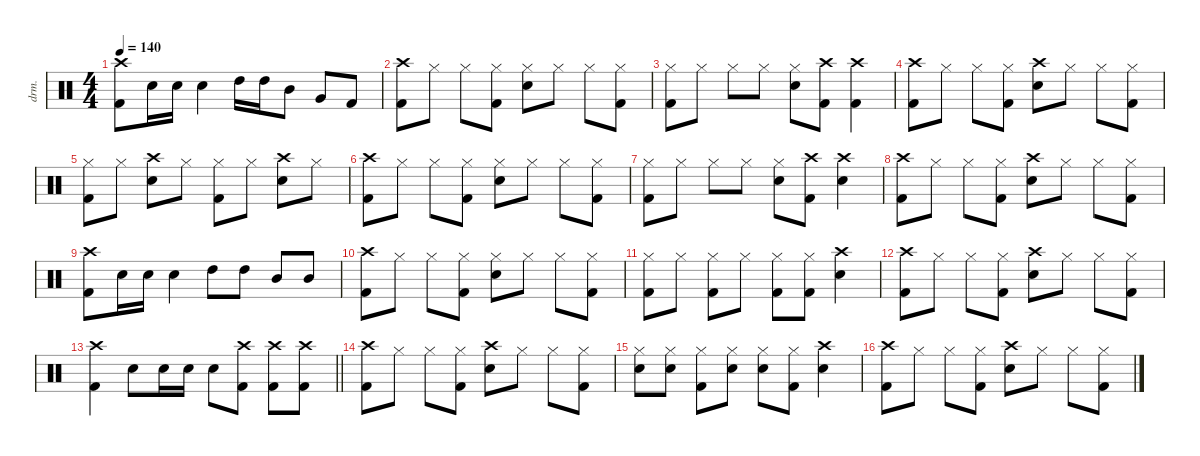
\defaultSystemsLayout 4
\hideDynamics
\bracketExtendMode nobrackets
\otherSystemsTrackNameOrientation horizontal
\track ("Drums" "drm.") {defaultSystemsLayout 4 instrument percussion}
\staff {score}
\articulation defaults
\ts (4 4)
\tempo 140
\clef neutral
\ks c
("Crash high (hit)" "Kick (hit) 2").8{dy f beam Down} "Snare (hit) 2".16{beam Down} "Snare (hit) 2".16{beam Down} "Snare (hit) 2".4{beam Down} "High Tom (hit)".16{beam Down} "High Tom (hit)".16{beam Down} "Mid Tom (hit)".8{beam Down} "Very Low Tom (hit)".8{beam Up} "Kick (hit) 2".8{beam Up} |
("Crash high (hit)" "Kick (hit) 2").8{beam Down} "Hi-Hat (closed)".8{beam Down} "Hi-Hat (closed)".8{beam Down} ("Hi-Hat (closed)" "Kick (hit) 2").8{beam Down} ("Hi-Hat (closed)" "Snare (hit) 2").8{beam Down} "Hi-Hat (closed)".8{beam Down} "Hi-Hat (closed)".8{beam Down} ("Hi-Hat (closed)" "Kick (hit) 2").8{beam Down} |
("Hi-Hat (closed)" "Kick (hit) 2").8{beam Down} "Hi-Hat (closed)".8{beam Down} "Hi-Hat (closed)".8{beam Down} "Hi-Hat (closed)".8{beam Down} ("Hi-Hat (closed)" "Snare (hit) 2").8{beam Down} ("Crash high (hit)" "Kick (hit) 2").8{beam Down} ("Crash high (hit)" "Kick (hit) 2").4{beam Down} |
("Crash high (hit)" "Kick (hit) 2").8{beam Down} "Hi-Hat (closed)".8{beam Down} "Hi-Hat (closed)".8{beam Down} ("Hi-Hat (closed)" "Kick (hit) 2").8{beam Down} ("Crash high (hit)" "Snare (hit) 2").8{beam Down} "Hi-Hat (closed)".8{beam Down} "Hi-Hat (closed)".8{beam Down} ("Hi-Hat (closed)" "Kick (hit) 2").8{beam Down} |
("Hi-Hat (closed)" "Kick (hit) 2").8{beam Down} "Hi-Hat (closed)".8{beam Down} ("Crash high (hit)" "Snare (hit) 2").8{beam Down} "Hi-Hat (closed)".8{beam Down} ("Hi-Hat (closed)" "Kick (hit) 2").8{beam Down} "Hi-Hat (closed)".8{beam Down} ("Crash high (hit)" "Snare (hit) 2").8{beam Down} "Hi-Hat (closed)".8{beam Down} |
("Crash high (hit)" "Kick (hit) 2").8{beam Down} "Hi-Hat (closed)".8{beam Down} "Hi-Hat (closed)".8{beam Down} ("Hi-Hat (closed)" "Kick (hit) 2").8{beam Down} ("Hi-Hat (closed)" "Snare (hit) 2").8{beam Down} "Hi-Hat (closed)".8{beam Down} "Hi-Hat (closed)".8{beam Down} ("Hi-Hat (closed)" "Kick (hit) 2").8{beam Down} |
("Hi-Hat (closed)" "Kick (hit) 2").8{beam Down} "Hi-Hat (closed)".8{beam Down} "Hi-Hat (closed)".8{beam Down} "Hi-Hat (closed)".8{beam Down} ("Hi-Hat (closed)" "Snare (hit) 2").8{beam Down} ("Crash high (hit)" "Kick (hit) 2").8{beam Down} ("Crash high (hit)" "Snare (hit) 2").4{beam Down} |
("Crash high (hit)" "Kick (hit) 2").8{beam Down} "Hi-Hat (closed)".8{beam Down} "Hi-Hat (closed)".8{beam Down} ("Hi-Hat (closed)" "Kick (hit) 2").8{beam Down} ("Crash high (hit)" "Snare (hit) 2").8{beam Down} "Hi-Hat (closed)".8{beam Down} "Hi-Hat (closed)".8{beam Down} ("Hi-Hat (closed)" "Kick (hit) 2").8{beam Down} |
("Crash high (hit)" "Kick (hit) 2").8{beam Down} "Snare (hit) 2".16{beam Down} "Snare (hit) 2".16{beam Down} "Snare (hit) 2".4{beam Down} "High Tom (hit)".8{beam Down} "High Tom (hit)".8{beam Down} "Mid Tom (hit)".8{beam Up} "Mid Tom (hit)".8{beam Up} |
("Crash high (hit)" "Kick (hit) 2").8{beam Down} "Hi-Hat (closed)".8{beam Down} "Hi-Hat (closed)".8{beam Down} ("Hi-Hat (closed)" "Kick (hit) 2").8{beam Down} ("Hi-Hat (closed)" "Snare (hit) 2").8{beam Down} "Hi-Hat (closed)".8{beam Down} "Hi-Hat (closed)".8{beam Down} ("Hi-Hat (closed)" "Kick (hit) 2").8{beam Down} |
("Hi-Hat (closed)" "Kick (hit) 2").8{beam Down} "Hi-Hat (closed)".8{beam Down} ("Hi-Hat (closed)" "Kick (hit) 2").8{beam Down} "Hi-Hat (closed)".8{beam Down} ("Hi-Hat (closed)" "Kick (hit) 2").8{beam Down} ("Hi-Hat (closed)" "Kick (hit) 2").8{beam Down} ("Crash high (hit)" "Snare (hit) 2").4{beam Down} |
("Crash high (hit)" "Kick (hit) 2").8{beam Down} "Hi-Hat (closed)".8{beam Down} "Hi-Hat (closed)".8{beam Down} ("Hi-Hat (closed)" "Kick (hit) 2").8{beam Down} ("Crash high (hit)" "Snare (hit) 2").8{beam Down} "Hi-Hat (closed)".8{beam Down} "Hi-Hat (closed)".8{beam Down} ("Hi-Hat (closed)" "Kick (hit) 2").8{beam Down} |
\barLineRight lightlight
("Crash high (hit)" "Kick (hit) 2").4{beam Down} "Snare (hit) 2".8{dy fff beam Down} "Snare (hit) 2".16{dy f beam Down} "Snare (hit) 2".16{beam Down} "Snare (hit) 2".8{beam Down} ("Crash high (hit)" "Kick (hit) 2").8{beam Down} ("Crash high (hit)" "Kick (hit) 2").8{beam Down} ("Crash high (hit)" "Kick (hit) 2").8{beam Down} |
("Crash high (hit)" "Kick (hit) 2").8{beam Down} "Hi-Hat (closed)".8{beam Down} "Hi-Hat (closed)".8{beam Down} ("Hi-Hat (closed)" "Kick (hit) 2").8{beam Down} ("Crash high (hit)" "Snare (hit) 2").8{beam Down} "Hi-Hat (closed)".8{beam Down} "Hi-Hat (closed)".8{beam Down} ("Hi-Hat (closed)" "Kick (hit) 2").8{beam Down} |
("Hi-Hat (closed)" "Snare (hit) 2").8{beam Down} ("Hi-Hat (closed)" "Snare (hit) 2").8{beam Down} ("Hi-Hat (closed)" "Kick (hit) 2").8{beam Down} ("Hi-Hat (closed)" "Snare (hit) 2").8{beam Down} ("Hi-Hat (closed)" "Snare (hit) 2").8{beam Down} ("Hi-Hat (closed)" "Kick (hit) 2").8{beam Down} ("Crash high (hit)" "Snare (hit) 2").4{beam Down} |
("Crash high (hit)" "Kick (hit) 2").8{beam Down} "Hi-Hat (closed)".8{beam Down} "Hi-Hat (closed)".8{beam Down} ("Hi-Hat (closed)" "Kick (hit) 2").8{beam Down} ("Crash high (hit)" "Snare (hit) 2").8{beam Down} "Hi-Hat (closed)".8{beam Down} "Hi-Hat (closed)".8{beam Down} ("Hi-Hat (closed)" "Kick (hit) 2").8{beam Down}
